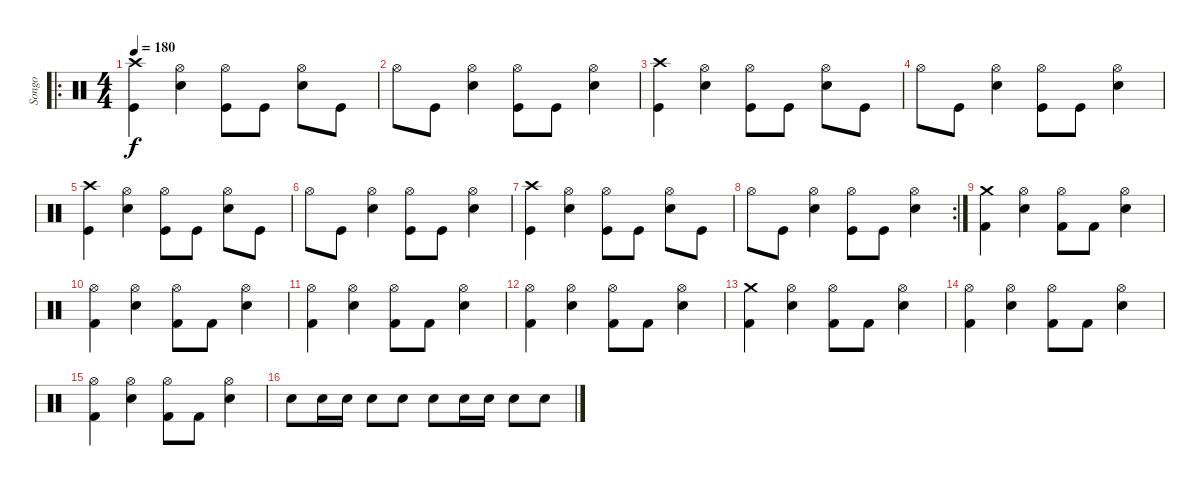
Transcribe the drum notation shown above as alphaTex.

\track ("Songo" "Songo") {instrument percussion}
\staff {score}
\articulation defaults
\ro
\ts (4 4)
\tempo 180
\clef neutral
\ks c
("Kick (hit)" "Crash high (hit)").4{dy f} ("Hi-Hat (open)" "Snare (hit) 2").4 ("Hi-Hat (open)" "Kick (hit)").8 "Kick (hit)".8 ("Hi-Hat (open)" "Snare (hit) 2").8 "Kick (hit)".8 |
"Hi-Hat (open)".8 "Kick (hit)".8 ("Hi-Hat (open)" "Snare (hit) 2").4 ("Hi-Hat (open)" "Kick (hit)").8 "Kick (hit)".8 ("Hi-Hat (open)" "Snare (hit) 2").4 |
("Kick (hit)" "Crash high (hit)").4 ("Hi-Hat (open)" "Snare (hit) 2").4 ("Hi-Hat (open)" "Kick (hit)").8 "Kick (hit)".8 ("Hi-Hat (open)" "Snare (hit) 2").8 "Kick (hit)".8 |
"Hi-Hat (open)".8 "Kick (hit)".8 ("Hi-Hat (open)" "Snare (hit) 2").4 ("Hi-Hat (open)" "Kick (hit)").8 "Kick (hit)".8 ("Hi-Hat (open)" "Snare (hit) 2").4 |
("Kick (hit)" "Crash high (hit)").4 ("Hi-Hat (open)" "Snare (hit) 2").4 ("Hi-Hat (open)" "Kick (hit)").8 "Kick (hit)".8 ("Hi-Hat (open)" "Snare (hit) 2").8 "Kick (hit)".8 |
"Hi-Hat (open)".8 "Kick (hit)".8 ("Hi-Hat (open)" "Snare (hit) 2").4 ("Hi-Hat (open)" "Kick (hit)").8 "Kick (hit)".8 ("Hi-Hat (open)" "Snare (hit) 2").4 |
("Kick (hit)" "Crash high (hit)").4 ("Hi-Hat (open)" "Snare (hit) 2").4 ("Hi-Hat (open)" "Kick (hit)").8 "Kick (hit)".8 ("Hi-Hat (open)" "Snare (hit) 2").8 "Kick (hit)".8 |
\rc 2 "Hi-Hat (open)".8 "Kick (hit)".8
("Hi-Hat (open)" "Snare (hit) 2").4 ("Hi-Hat (open)" "Kick (hit)").8 "Kick (hit)".8 ("Hi-Hat (open)" "Snare (hit) 2").4 |
("Kick (hit) 2" "Crash medium (hit)").4 ("Electric Snare (hit)" "Hi-Hat (open)").4 ("Kick (hit) 2" "Hi-Hat (open)").8 "Kick (hit) 2".8 ("Electric Snare (hit)" "Hi-Hat (open)").4 |
("Kick (hit) 2" "Hi-Hat (open)").4 ("Electric Snare (hit)" "Hi-Hat (open)").4 ("Kick (hit) 2" "Hi-Hat (open)").8 "Kick (hit) 2".8 ("Electric Snare (hit)" "Hi-Hat (open)").4 |
("Kick (hit) 2" "Hi-Hat (open)").4 ("Electric Snare (hit)" "Hi-Hat (open)").4 ("Kick (hit) 2" "Hi-Hat (open)").8 "Kick (hit) 2".8 ("Electric Snare (hit)" "Hi-Hat (open)").4 |
("Kick (hit) 2" "Hi-Hat (open)").4 ("Electric Snare (hit)" "Hi-Hat (open)").4 ("Kick (hit) 2" "Hi-Hat (open)").8 "Kick (hit) 2".8 ("Electric Snare (hit)" "Hi-Hat (open)").4 |
("Kick (hit) 2" "Crash medium (hit)").4 ("Electric Snare (hit)" "Hi-Hat (open)").4 ("Kick (hit) 2" "Hi-Hat (open)").8 "Kick (hit) 2".8 ("Electric Snare (hit)" "Hi-Hat (open)").4 |
("Kick (hit) 2" "Hi-Hat (open)").4 ("Electric Snare (hit)" "Hi-Hat (open)").4 ("Kick (hit) 2" "Hi-Hat (open)").8 "Kick (hit) 2".8 ("Electric Snare (hit)" "Hi-Hat (open)").4 |
("Kick (hit) 2" "Hi-Hat (open)").4 ("Electric Snare (hit)" "Hi-Hat (open)").4 ("Kick (hit) 2" "Hi-Hat (open)").8 "Kick (hit) 2".8 ("Electric Snare (hit)" "Hi-Hat (open)").4 |
"Snare (hit) 2".8 "Snare (hit) 2".16 "Snare (hit) 2".16 "Snare (hit) 2".8 "Snare (hit) 2".8 "Snare (hit) 2".8 "Snare (hit) 2".16 "Snare (hit) 2".16 "Snare (hit) 2".8 "Snare (hit) 2".8
